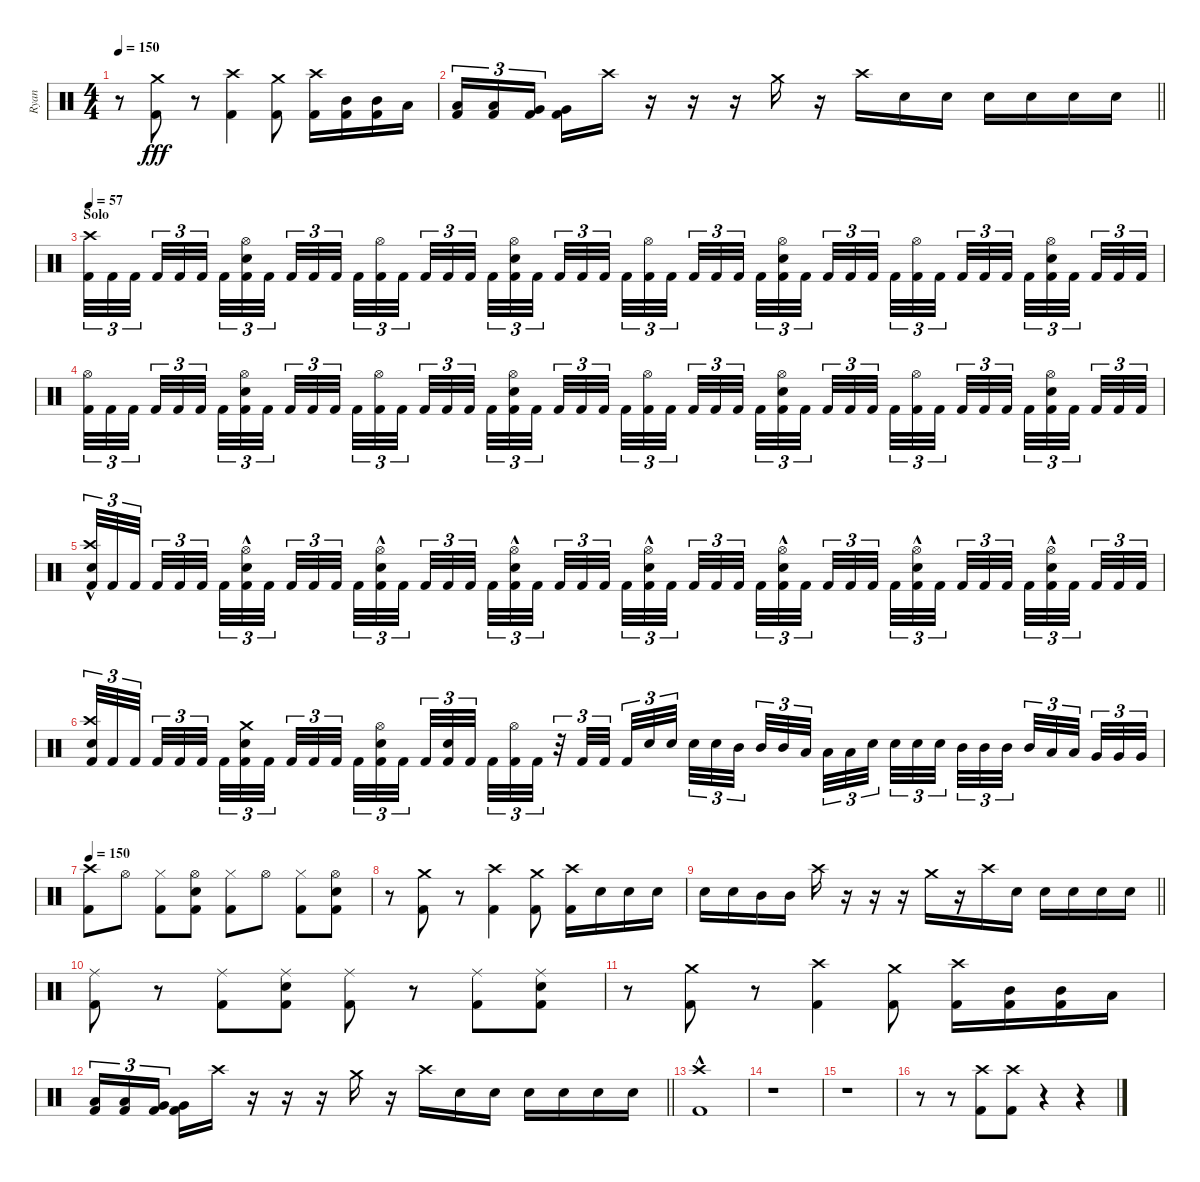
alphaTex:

\track ("Ryan" "Ryan") {instrument percussion}
\staff {score}
\articulation defaults
\ts (4 4)
\tempo 150
\clef neutral
\ks c
r.8{dy fff} ("Crash medium (hit)" "Kick (hit) 2").8 r.8 ("Crash high (hit)" "Kick (hit) 2").4 ("Crash medium (hit)" "Kick (hit) 2").8 ("Crash high (hit)" "Kick (hit) 2").16 ("Mid Tom (hit)" "Kick (hit) 2").16 ("Mid Tom (hit)" "Kick (hit) 2").16 "Low Tom (hit)".16 |
\barLineRight lightlight
("Low Tom (hit)" "Kick (hit) 2").16{tu (3 2)} ("Low Tom (hit)" "Kick (hit) 2").16{tu (3 2)} ("Very Low Tom (hit)" "Kick (hit) 2").16{tu (3 2) beam splitsecondary} ("Very Low Tom (hit)" "Kick (hit) 2").16 "Crash high (hit)".16 r.16 r.16 r.16 "Crash medium (hit)".16 r.16 "Crash high (hit)".16 "Electric Snare (hit)".16 "Electric Snare (hit)".16 "Electric Snare (hit)".16 "Electric Snare (hit)".16 "Electric Snare (hit)".16 "Electric Snare (hit)".16 |
\section ("" "Solo")
\tempo 57
("Crash high (hit)" "Kick (hit) 2").32{tu (3 2)} "Kick (hit) 2".32{tu (3 2)} "Kick (hit) 2".32{tu (3 2) beam splitsecondary} "Kick (hit) 2".32{tu (3 2)} "Kick (hit) 2".32{tu (3 2)} "Kick (hit) 2".32{tu (3 2) beam splitsecondary} "Kick (hit) 2".32{tu (3 2)} ("Hi-Hat (open)" "Electric Snare (hit)" "Kick (hit) 2").32{tu (3 2)} "Kick (hit) 2".32{tu (3 2) beam splitsecondary} "Kick (hit) 2".32{tu (3 2)} "Kick (hit) 2".32{tu (3 2)} "Kick (hit) 2".32{tu (3 2)} "Kick (hit) 2".32{tu (3 2)} ("Hi-Hat (open)" "Kick (hit) 2").32{tu (3 2)} "Kick (hit) 2".32{tu (3 2) beam splitsecondary} "Kick (hit) 2".32{tu (3 2)} "Kick (hit) 2".32{tu (3 2)} "Kick (hit) 2".32{tu (3 2) beam splitsecondary} "Kick (hit) 2".32{tu (3 2)} ("Hi-Hat (open)" "Electric Snare (hit)" "Kick (hit) 2").32{tu (3 2)} "Kick (hit) 2".32{tu (3 2) beam splitsecondary} "Kick (hit) 2".32{tu (3 2)} "Kick (hit) 2".32{tu (3 2)} "Kick (hit) 2".32{tu (3 2)} "Kick (hit) 2".32{tu (3 2)} ("Hi-Hat (open)" "Kick (hit) 2").32{tu (3 2)} "Kick (hit) 2".32{tu (3 2) beam splitsecondary} "Kick (hit) 2".32{tu (3 2)} "Kick (hit) 2".32{tu (3 2)} "Kick (hit) 2".32{tu (3 2) beam splitsecondary} "Kick (hit) 2".32{tu (3 2)} ("Hi-Hat (open)" "Electric Snare (hit)" "Kick (hit) 2").32{tu (3 2)} "Kick (hit) 2".32{tu (3 2) beam splitsecondary} "Kick (hit) 2".32{tu (3 2)} "Kick (hit) 2".32{tu (3 2)} "Kick (hit) 2".32{tu (3 2)} "Kick (hit) 2".32{tu (3 2)} ("Hi-Hat (open)" "Kick (hit) 2").32{tu (3 2)} "Kick (hit) 2".32{tu (3 2) beam splitsecondary} "Kick (hit) 2".32{tu (3 2)} "Kick (hit) 2".32{tu (3 2)} "Kick (hit) 2".32{tu (3 2) beam splitsecondary} "Kick (hit) 2".32{tu (3 2)} ("Hi-Hat (open)" "Electric Snare (hit)" "Kick (hit) 2").32{tu (3 2)} "Kick (hit) 2".32{tu (3 2) beam splitsecondary} "Kick (hit) 2".32{tu (3 2)} "Kick (hit) 2".32{tu (3 2)} "Kick (hit) 2".32{tu (3 2)} |
("Hi-Hat (open)" "Kick (hit) 2").32{tu (3 2)} "Kick (hit) 2".32{tu (3 2)} "Kick (hit) 2".32{tu (3 2) beam splitsecondary} "Kick (hit) 2".32{tu (3 2)} "Kick (hit) 2".32{tu (3 2)} "Kick (hit) 2".32{tu (3 2) beam splitsecondary} "Kick (hit) 2".32{tu (3 2)} ("Hi-Hat (open)" "Electric Snare (hit)" "Kick (hit) 2").32{tu (3 2)} "Kick (hit) 2".32{tu (3 2) beam splitsecondary} "Kick (hit) 2".32{tu (3 2)} "Kick (hit) 2".32{tu (3 2)} "Kick (hit) 2".32{tu (3 2)} "Kick (hit) 2".32{tu (3 2)} ("Hi-Hat (open)" "Kick (hit) 2").32{tu (3 2)} "Kick (hit) 2".32{tu (3 2) beam splitsecondary} "Kick (hit) 2".32{tu (3 2)} "Kick (hit) 2".32{tu (3 2)} "Kick (hit) 2".32{tu (3 2) beam splitsecondary} "Kick (hit) 2".32{tu (3 2)} ("Hi-Hat (open)" "Electric Snare (hit)" "Kick (hit) 2").32{tu (3 2)} "Kick (hit) 2".32{tu (3 2) beam splitsecondary} "Kick (hit) 2".32{tu (3 2)} "Kick (hit) 2".32{tu (3 2)} "Kick (hit) 2".32{tu (3 2)} "Kick (hit) 2".32{tu (3 2)} ("Hi-Hat (open)" "Kick (hit) 2").32{tu (3 2)} "Kick (hit) 2".32{tu (3 2) beam splitsecondary} "Kick (hit) 2".32{tu (3 2)} "Kick (hit) 2".32{tu (3 2)} "Kick (hit) 2".32{tu (3 2) beam splitsecondary} "Kick (hit) 2".32{tu (3 2)} ("Hi-Hat (open)" "Electric Snare (hit)" "Kick (hit) 2").32{tu (3 2)} "Kick (hit) 2".32{tu (3 2) beam splitsecondary} "Kick (hit) 2".32{tu (3 2)} "Kick (hit) 2".32{tu (3 2)} "Kick (hit) 2".32{tu (3 2)} "Kick (hit) 2".32{tu (3 2)} ("Hi-Hat (open)" "Kick (hit) 2").32{tu (3 2)} "Kick (hit) 2".32{tu (3 2) beam splitsecondary} "Kick (hit) 2".32{tu (3 2)} "Kick (hit) 2".32{tu (3 2)} "Kick (hit) 2".32{tu (3 2) beam splitsecondary} "Kick (hit) 2".32{tu (3 2)} ("Hi-Hat (open)" "Electric Snare (hit)" "Kick (hit) 2").32{tu (3 2)} "Kick (hit) 2".32{tu (3 2) beam splitsecondary} "Kick (hit) 2".32{tu (3 2)} "Kick (hit) 2".32{tu (3 2)} "Kick (hit) 2".32{tu (3 2)} |
("Crash high (hit)" "Electric Snare (hit)"{hac} "Kick (hit) 2").32{tu (3 2)} "Kick (hit) 2".32{tu (3 2)} "Kick (hit) 2".32{tu (3 2) beam splitsecondary} "Kick (hit) 2".32{tu (3 2)} "Kick (hit) 2".32{tu (3 2)} "Kick (hit) 2".32{tu (3 2) beam splitsecondary} "Kick (hit) 2".32{tu (3 2)} ("Hi-Hat (open)" "Electric Snare (hit)"{hac} "Kick (hit) 2").32{tu (3 2)} "Kick (hit) 2".32{tu (3 2) beam splitsecondary} "Kick (hit) 2".32{tu (3 2)} "Kick (hit) 2".32{tu (3 2)} "Kick (hit) 2".32{tu (3 2)} "Kick (hit) 2".32{tu (3 2)} ("Hi-Hat (open)" "Electric Snare (hit)"{hac} "Kick (hit) 2").32{tu (3 2)} "Kick (hit) 2".32{tu (3 2) beam splitsecondary} "Kick (hit) 2".32{tu (3 2)} "Kick (hit) 2".32{tu (3 2)} "Kick (hit) 2".32{tu (3 2) beam splitsecondary} "Kick (hit) 2".32{tu (3 2)} ("Hi-Hat (open)" "Electric Snare (hit)"{hac} "Kick (hit) 2").32{tu (3 2)} "Kick (hit) 2".32{tu (3 2) beam splitsecondary} "Kick (hit) 2".32{tu (3 2)} "Kick (hit) 2".32{tu (3 2)} "Kick (hit) 2".32{tu (3 2)} "Kick (hit) 2".32{tu (3 2)} ("Hi-Hat (open)" "Electric Snare (hit)"{hac} "Kick (hit) 2").32{tu (3 2)} "Kick (hit) 2".32{tu (3 2) beam splitsecondary} "Kick (hit) 2".32{tu (3 2)} "Kick (hit) 2".32{tu (3 2)} "Kick (hit) 2".32{tu (3 2) beam splitsecondary} "Kick (hit) 2".32{tu (3 2)} ("Hi-Hat (open)" "Electric Snare (hit)"{hac} "Kick (hit) 2").32{tu (3 2)} "Kick (hit) 2".32{tu (3 2) beam splitsecondary} "Kick (hit) 2".32{tu (3 2)} "Kick (hit) 2".32{tu (3 2)} "Kick (hit) 2".32{tu (3 2)} "Kick (hit) 2".32{tu (3 2)} ("Hi-Hat (open)" "Electric Snare (hit)"{hac} "Kick (hit) 2").32{tu (3 2)} "Kick (hit) 2".32{tu (3 2) beam splitsecondary} "Kick (hit) 2".32{tu (3 2)} "Kick (hit) 2".32{tu (3 2)} "Kick (hit) 2".32{tu (3 2) beam splitsecondary} "Kick (hit) 2".32{tu (3 2)} ("Hi-Hat (open)" "Electric Snare (hit)"{hac} "Kick (hit) 2").32{tu (3 2)} "Kick (hit) 2".32{tu (3 2) beam splitsecondary} "Kick (hit) 2".32{tu (3 2)} "Kick (hit) 2".32{tu (3 2)} "Kick (hit) 2".32{tu (3 2)} |
("Crash high (hit)" "Electric Snare (hit)" "Kick (hit) 2").32{tu (3 2)} "Kick (hit) 2".32{tu (3 2)} "Kick (hit) 2".32{tu (3 2) beam splitsecondary} "Kick (hit) 2".32{tu (3 2)} "Kick (hit) 2".32{tu (3 2)} "Kick (hit) 2".32{tu (3 2) beam splitsecondary} "Kick (hit) 2".32{tu (3 2)} ("Crash medium (hit)" "Electric Snare (hit)" "Kick (hit) 2").32{tu (3 2)} "Kick (hit) 2".32{tu (3 2) beam splitsecondary} "Kick (hit) 2".32{tu (3 2)} "Kick (hit) 2".32{tu (3 2)} "Kick (hit) 2".32{tu (3 2)} "Kick (hit) 2".32{tu (3 2)} ("Hi-Hat (open)" "Electric Snare (hit)" "Kick (hit) 2").32{tu (3 2)} "Kick (hit) 2".32{tu (3 2) beam splitsecondary} "Kick (hit) 2".32{tu (3 2)} ("Electric Snare (hit)" "Kick (hit) 2").32{tu (3 2)} "Kick (hit) 2".32{tu (3 2) beam splitsecondary} "Kick (hit) 2".32{tu (3 2)} ("Hi-Hat (open)" "Kick (hit) 2").32{tu (3 2)} "Kick (hit) 2".32{tu (3 2)} r.32{tu (3 2)} "Kick (hit) 2".32{tu (3 2)} "Kick (hit) 2".32{tu (3 2)} "Kick (hit) 2".32{tu (3 2)} "Electric Snare (hit)".32{tu (3 2)} "Electric Snare (hit)".32{tu (3 2) beam splitsecondary} "Electric Snare (hit)".32{tu (3 2)} "Electric Snare (hit)".32{tu (3 2)} "Mid Tom (hit)".32{tu (3 2) beam splitsecondary} "Mid Tom (hit)".32{tu (3 2)} "Mid Tom (hit)".32{tu (3 2)} "Low Tom (hit)".32{tu (3 2) beam splitsecondary} "Low Tom (hit)".32{tu (3 2)} "Low Tom (hit)".32{tu (3 2)} "Electric Snare (hit)".32{tu (3 2)} "Electric Snare (hit)".32{tu (3 2)} "Electric Snare (hit)".32{tu (3 2)} "Electric Snare (hit)".32{tu (3 2) beam splitsecondary} "Mid Tom (hit)".32{tu (3 2)} "Mid Tom (hit)".32{tu (3 2)} "Mid Tom (hit)".32{tu (3 2) beam splitsecondary} "Mid Tom (hit)".32{tu (3 2)} "Low Tom (hit)".32{tu (3 2)} "Low Tom (hit)".32{tu (3 2) beam splitsecondary} "Very Low Tom (hit)".32{tu (3 2)} "Very Low Tom (hit)".32{tu (3 2)} "Very Low Tom (hit)".32{tu (3 2)} |
\tempo 150
("Crash high (hit)" "Kick (hit) 2").8 "Hi-Hat (open)".8 ("Hi-Hat (closed)" "Kick (hit) 2").8 ("Hi-Hat (open)" "Electric Snare (hit)" "Kick (hit) 2").8 ("Hi-Hat (closed)" "Kick (hit) 2").8 "Hi-Hat (open)".8 ("Hi-Hat (closed)" "Kick (hit) 2").8 ("Hi-Hat (open)" "Electric Snare (hit)" "Kick (hit) 2").8 |
r.8 ("Crash medium (hit)" "Kick (hit) 2").8 r.8 ("Crash high (hit)" "Kick (hit) 2").4 ("Crash medium (hit)" "Kick (hit) 2").8 ("Crash high (hit)" "Kick (hit) 2").16 "Electric Snare (hit)".16 "Electric Snare (hit)".16 "Electric Snare (hit)".16 |
\barLineRight lightlight "Electric Snare (hit)".16 "Electric Snare (hit)".16 "Mid Tom (hit)".16 "Mid Tom (hit)".16 "Crash high (hit)".16
r.16 r.16 r.16 "Crash medium (hit)".16 r.16 "Crash high (hit)".16 "Electric Snare (hit)".16 "Electric Snare (hit)".16 "Electric Snare (hit)".16 "Electric Snare (hit)".16 "Electric Snare (hit)".16 |
("Ride (middle)" "Kick (hit) 2").8 r.8 ("Ride (middle)" "Kick (hit) 2").8 ("Ride (middle)" "Electric Snare (hit)" "Kick (hit) 2").8 ("Ride (middle)" "Kick (hit) 2").8 r.8 ("Ride (middle)" "Kick (hit) 2").8 ("Ride (middle)" "Electric Snare (hit)" "Kick (hit) 2").8 |
r.8 ("Crash medium (hit)" "Kick (hit) 2").8 r.8 ("Crash high (hit)" "Kick (hit) 2").4 ("Crash medium (hit)" "Kick (hit) 2").8 ("Crash high (hit)" "Kick (hit) 2").16 ("Mid Tom (hit)" "Kick (hit) 2").16 ("Mid Tom (hit)" "Kick (hit) 2").16 "Low Tom (hit)".16 |
\barLineRight lightlight
("Low Tom (hit)" "Kick (hit) 2").16{tu (3 2)} ("Low Tom (hit)" "Kick (hit) 2").16{tu (3 2)} ("Very Low Tom (hit)" "Kick (hit) 2").16{tu (3 2) beam splitsecondary} ("Very Low Tom (hit)" "Kick (hit) 2").16 "Crash high (hit)".16 r.16 r.16 r.16 "Crash medium (hit)".16 r.16 "Crash high (hit)".16 "Electric Snare (hit)".16 "Electric Snare (hit)".16 "Electric Snare (hit)".16 "Electric Snare (hit)".16 "Electric Snare (hit)".16 "Electric Snare (hit)".16 |
("Crash high (hit)"{hac} "Kick (hit) 2"{hac}).1 |
r.1 |
r.1 |
r.8 r.8 ("Crash high (hit)" "Kick (hit) 2").8 ("Crash high (hit)" "Kick (hit) 2").8 r.4{volume 0} r.4
